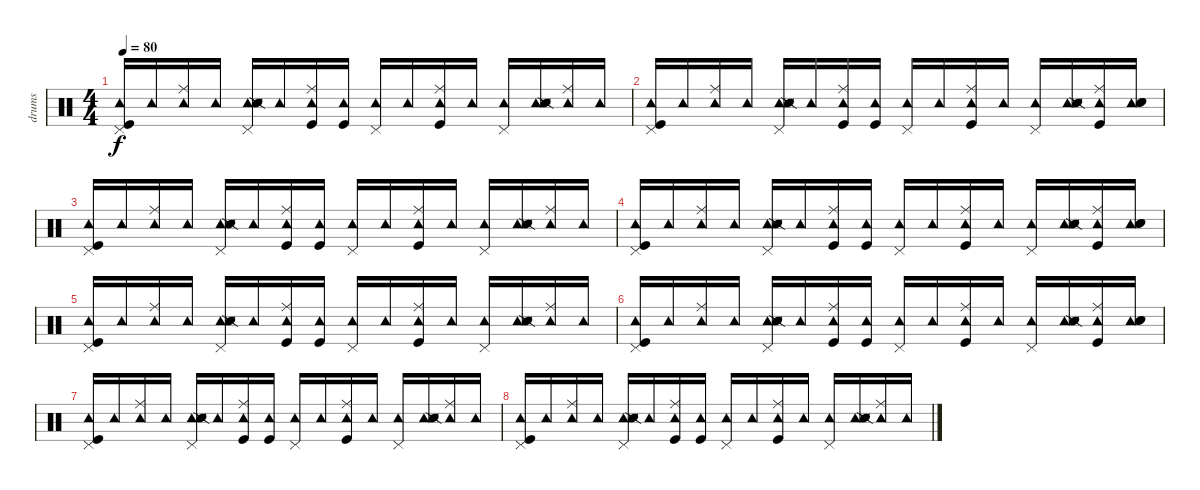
\track ("drums" "drums") {instrument percussion}
\staff {score}
\articulation defaults
\ts (4 4)
\tempo 80
\clef neutral
\ks c
("Pedal Hi-Hat (hit)" "Tambourine (hit)" "Kick (hit)").16{dy f} "Tambourine (hit)".16 ("Ride (middle)" "Tambourine (hit)").16 "Tambourine (hit)".16 ("Pedal Hi-Hat (hit)" "Tambourine (hit)" "Snare (side stick) 2" "Metronome (hit)" "Metronome (hit)").16 "Tambourine (hit)".16 ("Ride (middle)" "Tambourine (hit)" "Kick (hit)").16 ("Tambourine (hit)" "Kick (hit)").16 ("Pedal Hi-Hat (hit)" "Tambourine (hit)").16 "Tambourine (hit)".16 ("Ride (middle)" "Tambourine (hit)" "Kick (hit)").16 "Tambourine (hit)".16 ("Pedal Hi-Hat (hit)" "Tambourine (hit)").16 ("Tambourine (hit)" "Snare (side stick) 2" "Metronome (hit)" "Metronome (hit)").16 ("Ride (middle)" "Tambourine (hit)").16 "Tambourine (hit)".16 |
("Pedal Hi-Hat (hit)" "Tambourine (hit)" "Kick (hit)").16 "Tambourine (hit)".16 ("Ride (middle)" "Tambourine (hit)").16 "Tambourine (hit)".16 ("Pedal Hi-Hat (hit)" "Tambourine (hit)" "Snare (side stick) 2" "Metronome (hit)" "Metronome (hit)").16 "Tambourine (hit)".16 ("Ride (middle)" "Tambourine (hit)" "Kick (hit)").16 ("Tambourine (hit)" "Kick (hit)").16 ("Pedal Hi-Hat (hit)" "Tambourine (hit)").16 "Tambourine (hit)".16 ("Ride (middle)" "Tambourine (hit)" "Kick (hit)").16 "Tambourine (hit)".16 ("Pedal Hi-Hat (hit)" "Tambourine (hit)").16 ("Tambourine (hit)" "Snare (side stick) 2" "Metronome (hit)" "Metronome (hit)").16 ("Ride (middle)" "Tambourine (hit)" "Kick (hit)").16 ("Tambourine (hit)" "Snare (hit) 2" "Snare (hit) 2").16 |
("Pedal Hi-Hat (hit)" "Tambourine (hit)" "Kick (hit)").16 "Tambourine (hit)".16 ("Ride (middle)" "Tambourine (hit)").16 "Tambourine (hit)".16 ("Pedal Hi-Hat (hit)" "Tambourine (hit)" "Snare (side stick) 2" "Metronome (hit)" "Metronome (hit)").16 "Tambourine (hit)".16 ("Ride (middle)" "Tambourine (hit)" "Kick (hit)").16 ("Tambourine (hit)" "Kick (hit)").16 ("Pedal Hi-Hat (hit)" "Tambourine (hit)").16 "Tambourine (hit)".16 ("Ride (middle)" "Tambourine (hit)" "Kick (hit)").16 "Tambourine (hit)".16 ("Pedal Hi-Hat (hit)" "Tambourine (hit)").16 ("Tambourine (hit)" "Snare (side stick) 2" "Metronome (hit)" "Metronome (hit)").16 ("Ride (middle)" "Tambourine (hit)").16 "Tambourine (hit)".16 |
("Pedal Hi-Hat (hit)" "Tambourine (hit)" "Kick (hit)").16 "Tambourine (hit)".16 ("Ride (middle)" "Tambourine (hit)").16 "Tambourine (hit)".16 ("Pedal Hi-Hat (hit)" "Tambourine (hit)" "Snare (side stick) 2" "Metronome (hit)" "Metronome (hit)").16 "Tambourine (hit)".16 ("Ride (middle)" "Tambourine (hit)" "Kick (hit)").16 ("Tambourine (hit)" "Kick (hit)").16 ("Pedal Hi-Hat (hit)" "Tambourine (hit)").16 "Tambourine (hit)".16 ("Ride (middle)" "Tambourine (hit)" "Kick (hit)").16 "Tambourine (hit)".16 ("Pedal Hi-Hat (hit)" "Tambourine (hit)").16 ("Tambourine (hit)" "Snare (side stick) 2" "Metronome (hit)" "Metronome (hit)").16 ("Ride (middle)" "Tambourine (hit)" "Kick (hit)").16 ("Tambourine (hit)" "Snare (hit) 2" "Snare (hit) 2").16 |
("Pedal Hi-Hat (hit)" "Tambourine (hit)" "Kick (hit)").16 "Tambourine (hit)".16 ("Ride (middle)" "Tambourine (hit)").16 "Tambourine (hit)".16 ("Pedal Hi-Hat (hit)" "Tambourine (hit)" "Snare (side stick) 2" "Metronome (hit)" "Metronome (hit)").16 "Tambourine (hit)".16 ("Ride (middle)" "Tambourine (hit)" "Kick (hit)").16 ("Tambourine (hit)" "Kick (hit)").16 ("Pedal Hi-Hat (hit)" "Tambourine (hit)").16 "Tambourine (hit)".16 ("Ride (middle)" "Tambourine (hit)" "Kick (hit)").16 "Tambourine (hit)".16 ("Pedal Hi-Hat (hit)" "Tambourine (hit)").16 ("Tambourine (hit)" "Snare (side stick) 2" "Metronome (hit)" "Metronome (hit)").16 ("Ride (middle)" "Tambourine (hit)").16 "Tambourine (hit)".16 |
("Pedal Hi-Hat (hit)" "Tambourine (hit)" "Kick (hit)").16 "Tambourine (hit)".16 ("Ride (middle)" "Tambourine (hit)").16 "Tambourine (hit)".16 ("Pedal Hi-Hat (hit)" "Tambourine (hit)" "Snare (side stick) 2" "Metronome (hit)" "Metronome (hit)").16 "Tambourine (hit)".16 ("Ride (middle)" "Tambourine (hit)" "Kick (hit)").16 ("Tambourine (hit)" "Kick (hit)").16 ("Pedal Hi-Hat (hit)" "Tambourine (hit)").16 "Tambourine (hit)".16 ("Ride (middle)" "Tambourine (hit)" "Kick (hit)").16 "Tambourine (hit)".16 ("Pedal Hi-Hat (hit)" "Tambourine (hit)").16 ("Tambourine (hit)" "Snare (side stick) 2" "Metronome (hit)" "Metronome (hit)").16 ("Ride (middle)" "Tambourine (hit)" "Kick (hit)").16 ("Tambourine (hit)" "Snare (hit) 2" "Snare (hit) 2").16 |
("Pedal Hi-Hat (hit)" "Tambourine (hit)" "Kick (hit)").16 "Tambourine (hit)".16 ("Ride (middle)" "Tambourine (hit)").16 "Tambourine (hit)".16 ("Pedal Hi-Hat (hit)" "Tambourine (hit)" "Snare (side stick) 2" "Metronome (hit)" "Metronome (hit)").16 "Tambourine (hit)".16 ("Ride (middle)" "Tambourine (hit)" "Kick (hit)").16 ("Tambourine (hit)" "Kick (hit)").16 ("Pedal Hi-Hat (hit)" "Tambourine (hit)").16 "Tambourine (hit)".16 ("Ride (middle)" "Tambourine (hit)" "Kick (hit)").16 "Tambourine (hit)".16 ("Pedal Hi-Hat (hit)" "Tambourine (hit)").16 ("Tambourine (hit)" "Snare (side stick) 2" "Metronome (hit)" "Metronome (hit)").16 ("Ride (middle)" "Tambourine (hit)").16 "Tambourine (hit)".16 |
("Pedal Hi-Hat (hit)" "Tambourine (hit)" "Kick (hit)").16 "Tambourine (hit)".16 ("Ride (middle)" "Tambourine (hit)").16 "Tambourine (hit)".16 ("Pedal Hi-Hat (hit)" "Tambourine (hit)" "Snare (side stick) 2" "Metronome (hit)" "Metronome (hit)").16 "Tambourine (hit)".16 ("Ride (middle)" "Tambourine (hit)" "Kick (hit)").16 ("Tambourine (hit)" "Kick (hit)").16 ("Pedal Hi-Hat (hit)" "Tambourine (hit)").16 "Tambourine (hit)".16 ("Ride (middle)" "Tambourine (hit)" "Kick (hit)").16 "Tambourine (hit)".16 ("Pedal Hi-Hat (hit)" "Tambourine (hit)").16 ("Tambourine (hit)" "Snare (side stick) 2" "Metronome (hit)" "Metronome (hit)").16 ("Ride (middle)" "Tambourine (hit)").16 "Tambourine (hit)".16
